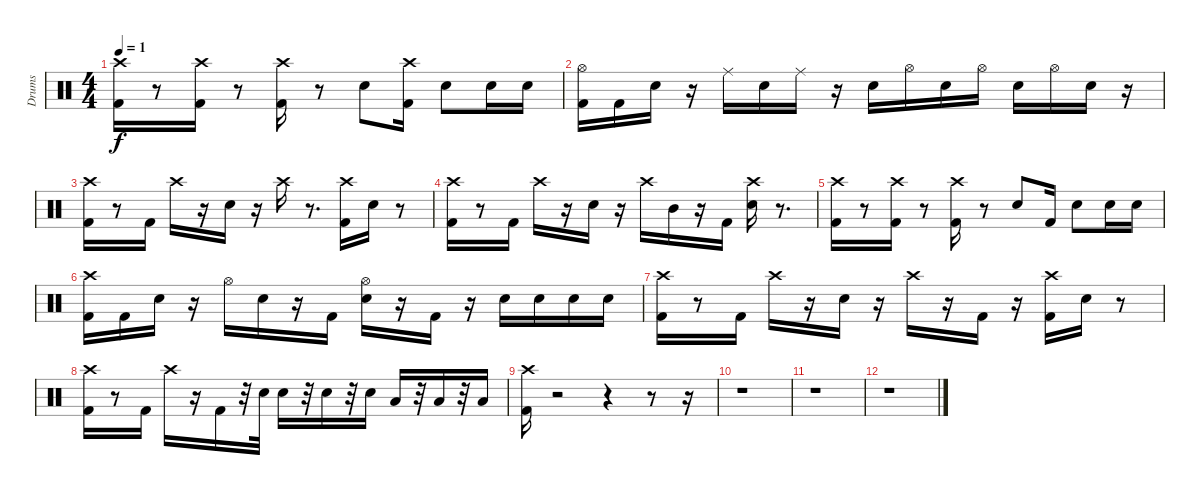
\track ("Drums" "Drums") {instrument percussion}
\staff {score}
\articulation defaults
\ts (4 4)
\tempo 1
\clef neutral
\ks c
("Kick (hit) 2" "Crash high (hit)").16{dy f} r.8 ("Kick (hit) 2" "Crash high (hit)").16 r.8 ("Kick (hit) 2" "Crash high (hit)").16 r.8 "Snare (hit) 2".8 ("Kick (hit) 2" "Crash high (hit)").16 "Snare (hit) 2".8 "Snare (hit) 2".16 "Snare (hit) 2".16 |
("Kick (hit) 2" "Hi-Hat (open)").16 "Kick (hit) 2".16 "Snare (hit) 2".16 r.16 "Ride (middle)".16 "Snare (hit) 2".16 "Ride (middle)".16 r.16 "Snare (hit) 2".16 "Hi-Hat (open)".16 "Snare (hit) 2".16 "Hi-Hat (open)".16 "Snare (hit) 2".16 "Hi-Hat (open)".16 "Snare (hit) 2".16 r.16 |
("Kick (hit) 2" "Crash high (hit)").16 r.8 "Kick (hit) 2".16 "Crash high (hit)".16 r.16 "Snare (hit) 2".16 r.16 "Crash high (hit)".16 r.8{d} ("Kick (hit) 2" "Crash high (hit)").16 "Snare (hit) 2".16 r.8 |
("Kick (hit) 2" "Crash high (hit)").16 r.8 "Kick (hit) 2".16 "Crash high (hit)".16 r.16 "Snare (hit) 2".16 r.16 "Crash high (hit)".16 "Mid Tom (hit)".16 r.16 "Kick (hit) 2".16 ("Snare (hit) 2" "Crash high (hit)").16 r.8{d} |
("Kick (hit) 2" "Crash high (hit)").16 r.8 ("Kick (hit) 2" "Crash high (hit)").16 r.8 ("Kick (hit) 2" "Crash high (hit)").16 r.8 "Snare (hit) 2".8 "Kick (hit) 2".16 "Snare (hit) 2".8 "Snare (hit) 2".16 "Snare (hit) 2".16 |
("Kick (hit) 2" "Crash high (hit)").16 "Kick (hit) 2".16 "Snare (hit) 2".16 r.16 "Hi-Hat (open)".16 "Snare (hit) 2".16 r.16 "Kick (hit) 2".16 ("Snare (hit) 2" "Hi-Hat (open)").16 r.16 "Kick (hit) 2".16 r.16 "Snare (hit) 2".16 "Snare (hit) 2".16 "Snare (hit) 2".16 "Snare (hit) 2".16 |
("Kick (hit) 2" "Crash high (hit)").16 r.8 "Kick (hit) 2".16 "Crash high (hit)".16 r.16 "Snare (hit) 2".16 r.16 "Crash high (hit)".16 r.16 "Kick (hit) 2".16 r.16 ("Kick (hit) 2" "Crash high (hit)").16 "Snare (hit) 2".16 r.8 |
("Kick (hit) 2" "Crash high (hit)").16 r.8 "Kick (hit) 2".16 "Crash high (hit)".16 r.16 "Kick (hit) 2".16 r.32 "Snare (hit) 2".32 "Snare (hit) 2".16 r.32 "Snare (hit) 2".16 r.32 "Snare (hit) 2".16 "Low Floor Tom (hit)".16 r.32 "Low Floor Tom (hit)".16 r.32 "Low Floor Tom (hit)".16 |
("Kick (hit) 2" "Crash high (hit)").16 r.2 r.4 r.8 r.16 |
r.1 |
r.1 |
r.1
